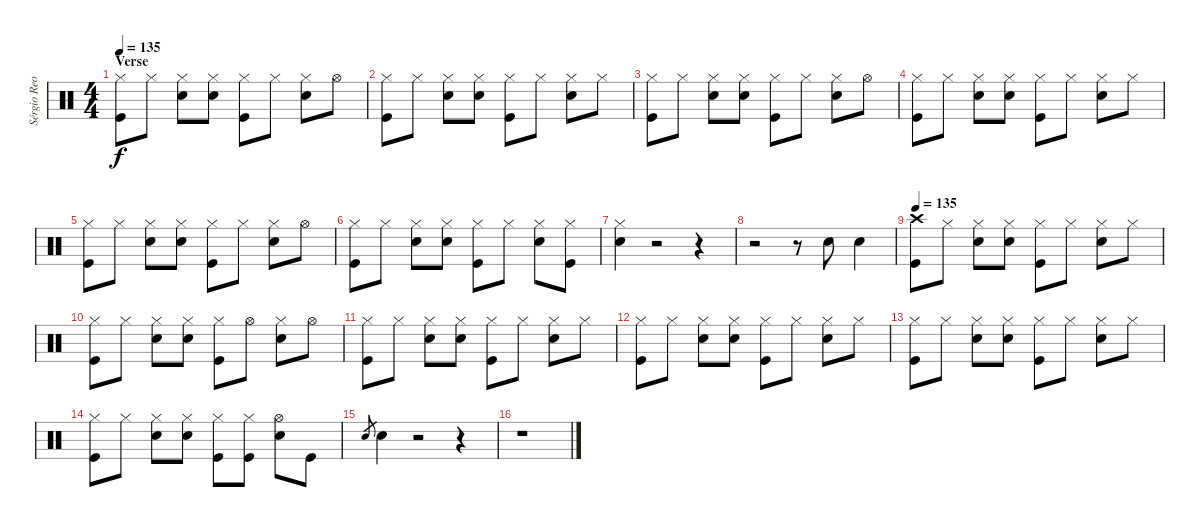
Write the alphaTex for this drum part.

\track ("Sérgio Reoli" "Sérgio Reo") {instrument percussion}
\staff {score}
\articulation defaults
\ts (4 4)
\section ("" "Verse")
\tempo 135
\clef neutral
\ks c
("Hi-Hat (closed)" "Kick (hit)").8{dy f} "Hi-Hat (closed)".8 ("Hi-Hat (closed)" "Electric Snare (hit)").8 ("Hi-Hat (closed)" "Electric Snare (hit)").8 ("Hi-Hat (closed)" "Kick (hit)").8 "Hi-Hat (closed)".8 ("Hi-Hat (closed)" "Electric Snare (hit)").8 "Hi-Hat (open)".8 |
("Hi-Hat (closed)" "Kick (hit)").8 "Hi-Hat (closed)".8 ("Hi-Hat (closed)" "Electric Snare (hit)").8 ("Hi-Hat (closed)" "Electric Snare (hit)").8 ("Hi-Hat (closed)" "Kick (hit)").8 "Hi-Hat (closed)".8 ("Hi-Hat (closed)" "Electric Snare (hit)").8 "Hi-Hat (closed)".8 |
("Hi-Hat (closed)" "Kick (hit)").8 "Hi-Hat (closed)".8 ("Hi-Hat (closed)" "Electric Snare (hit)").8 ("Hi-Hat (closed)" "Electric Snare (hit)").8 ("Hi-Hat (closed)" "Kick (hit)").8 "Hi-Hat (closed)".8 ("Hi-Hat (closed)" "Electric Snare (hit)").8 "Hi-Hat (open)".8 |
("Hi-Hat (closed)" "Kick (hit)").8 "Hi-Hat (closed)".8 ("Hi-Hat (closed)" "Electric Snare (hit)").8 ("Hi-Hat (closed)" "Electric Snare (hit)").8 ("Hi-Hat (closed)" "Kick (hit)").8 "Hi-Hat (closed)".8 ("Hi-Hat (closed)" "Electric Snare (hit)").8 "Hi-Hat (closed)".8 |
("Hi-Hat (closed)" "Kick (hit)").8 "Hi-Hat (closed)".8 ("Hi-Hat (closed)" "Electric Snare (hit)").8 ("Hi-Hat (closed)" "Electric Snare (hit)").8 ("Hi-Hat (closed)" "Kick (hit)").8 "Hi-Hat (closed)".8 ("Hi-Hat (closed)" "Electric Snare (hit)").8 "Hi-Hat (open)".8 |
("Hi-Hat (closed)" "Kick (hit)").8 "Hi-Hat (closed)".8 ("Hi-Hat (closed)" "Electric Snare (hit)").8 ("Hi-Hat (closed)" "Electric Snare (hit)").8 ("Hi-Hat (closed)" "Kick (hit)").8 "Hi-Hat (closed)".8 ("Hi-Hat (closed)" "Electric Snare (hit)").8 ("Hi-Hat (closed)" "Kick (hit)").8 |
("Hi-Hat (closed)" "Electric Snare (hit)").4 r.2 r.4 |
r.2 r.8 "Electric Snare (hit)".8 "Electric Snare (hit)".4 |
\tempo 135
("Crash high (hit)" "Kick (hit)").8 "Hi-Hat (closed)".8 ("Hi-Hat (closed)" "Electric Snare (hit)").8 ("Hi-Hat (closed)" "Electric Snare (hit)").8 ("Hi-Hat (closed)" "Kick (hit)").8 "Hi-Hat (closed)".8 ("Hi-Hat (closed)" "Electric Snare (hit)").8 "Hi-Hat (closed)".8 |
("Hi-Hat (closed)" "Kick (hit)").8 "Hi-Hat (closed)".8 ("Hi-Hat (closed)" "Electric Snare (hit)").8 ("Hi-Hat (closed)" "Electric Snare (hit)").8 ("Hi-Hat (closed)" "Kick (hit)").8 "Hi-Hat (open)".8 ("Hi-Hat (closed)" "Electric Snare (hit)").8 "Hi-Hat (open)".8 |
("Hi-Hat (closed)" "Kick (hit)").8 "Hi-Hat (closed)".8 ("Hi-Hat (closed)" "Electric Snare (hit)").8 ("Hi-Hat (closed)" "Electric Snare (hit)").8 ("Hi-Hat (closed)" "Kick (hit)").8 "Hi-Hat (closed)".8 ("Hi-Hat (closed)" "Electric Snare (hit)").8 "Hi-Hat (closed)".8 |
("Hi-Hat (closed)" "Kick (hit)").8 "Hi-Hat (closed)".8 ("Hi-Hat (closed)" "Electric Snare (hit)").8 ("Hi-Hat (closed)" "Electric Snare (hit)").8 ("Hi-Hat (closed)" "Kick (hit)").8 "Hi-Hat (closed)".8 ("Hi-Hat (closed)" "Electric Snare (hit)").8 "Hi-Hat (closed)".8 |
("Hi-Hat (closed)" "Kick (hit)").8 "Hi-Hat (closed)".8 ("Hi-Hat (closed)" "Electric Snare (hit)").8 ("Hi-Hat (closed)" "Electric Snare (hit)").8 ("Hi-Hat (closed)" "Kick (hit)").8 "Hi-Hat (closed)".8 ("Hi-Hat (closed)" "Electric Snare (hit)").8 "Hi-Hat (closed)".8 |
("Hi-Hat (closed)" "Kick (hit)").8 "Hi-Hat (closed)".8 ("Hi-Hat (closed)" "Electric Snare (hit)").8 ("Hi-Hat (closed)" "Electric Snare (hit)").8 ("Hi-Hat (closed)" "Kick (hit)").8 ("Hi-Hat (closed)" "Kick (hit)").8 ("Hi-Hat (open)" "Electric Snare (hit)").8 "Kick (hit)".8 |
"Electric Snare (hit)".8{gr} "Electric Snare (hit)".4 r.2 r.4 |
r.1
